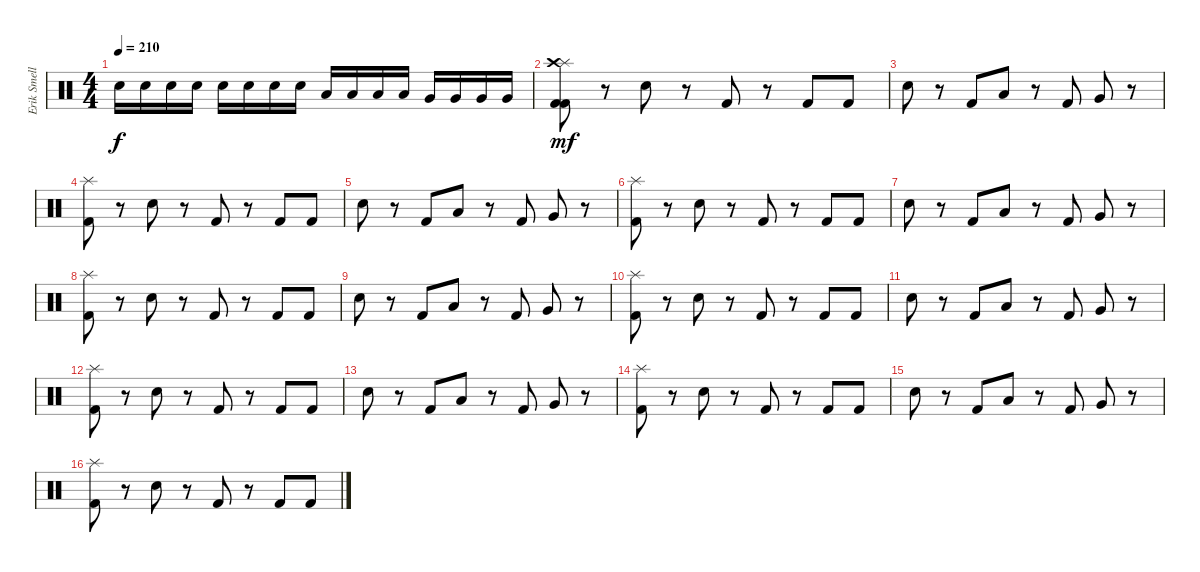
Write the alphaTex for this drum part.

\track ("Erik Smelly" "Erik Smell") {instrument percussion}
\staff {score}
\articulation defaults
\ts (4 4)
\tempo 210
\clef neutral
\ks c "Electric Snare (hit)".16{dy f} "Electric Snare (hit)".16 "Electric Snare (hit)".16 "Electric Snare (hit)".16 "Electric Snare (hit)".16 "Electric Snare (hit)".16 "Electric Snare (hit)".16 "Electric Snare (hit)".16 "Low Tom (hit)".16 "Low Tom (hit)".16 "Low Tom (hit)".16 "Low Tom (hit)".16 "Very Low Tom (hit)".16 "Very Low Tom (hit)".16 "Very Low Tom (hit)".16 "Very Low Tom (hit)".16
|
("Splash (hit)" "Kick (hit) 2" "Crash high (hit)" "Kick (hit) 2").8{dy mf} r.8 "Electric Snare (hit)".8 r.8 "Kick (hit) 2".8 r.8 "Kick (hit) 2".8 "Kick (hit) 2".8 |
"Electric Snare (hit)".8 r.8 "Kick (hit) 2".8 "Low Tom (hit)".8 r.8 "Kick (hit) 2".8 "Very Low Tom (hit)".8 r.8 |
("Splash (hit)" "Kick (hit) 2").8 r.8 "Electric Snare (hit)".8 r.8 "Kick (hit) 2".8 r.8 "Kick (hit) 2".8 "Kick (hit) 2".8 |
"Electric Snare (hit)".8 r.8 "Kick (hit) 2".8 "Low Tom (hit)".8 r.8 "Kick (hit) 2".8 "Very Low Tom (hit)".8 r.8 |
("Splash (hit)" "Kick (hit) 2").8 r.8 "Electric Snare (hit)".8 r.8 "Kick (hit) 2".8 r.8 "Kick (hit) 2".8 "Kick (hit) 2".8 |
"Electric Snare (hit)".8 r.8 "Kick (hit) 2".8 "Low Tom (hit)".8 r.8 "Kick (hit) 2".8 "Very Low Tom (hit)".8 r.8 |
("Splash (hit)" "Kick (hit) 2").8 r.8 "Electric Snare (hit)".8 r.8 "Kick (hit) 2".8 r.8 "Kick (hit) 2".8 "Kick (hit) 2".8 |
"Electric Snare (hit)".8 r.8 "Kick (hit) 2".8 "Low Tom (hit)".8 r.8 "Kick (hit) 2".8 "Very Low Tom (hit)".8 r.8 |
("Splash (hit)" "Kick (hit) 2").8 r.8 "Electric Snare (hit)".8 r.8 "Kick (hit) 2".8 r.8 "Kick (hit) 2".8 "Kick (hit) 2".8 |
"Electric Snare (hit)".8 r.8 "Kick (hit) 2".8 "Low Tom (hit)".8 r.8 "Kick (hit) 2".8 "Very Low Tom (hit)".8 r.8 |
("Splash (hit)" "Kick (hit) 2").8 r.8 "Electric Snare (hit)".8 r.8 "Kick (hit) 2".8 r.8 "Kick (hit) 2".8 "Kick (hit) 2".8 |
"Electric Snare (hit)".8 r.8 "Kick (hit) 2".8 "Low Tom (hit)".8 r.8 "Kick (hit) 2".8 "Very Low Tom (hit)".8 r.8 |
("Splash (hit)" "Kick (hit) 2").8 r.8 "Electric Snare (hit)".8 r.8 "Kick (hit) 2".8 r.8 "Kick (hit) 2".8 "Kick (hit) 2".8 |
"Electric Snare (hit)".8 r.8 "Kick (hit) 2".8 "Low Tom (hit)".8 r.8 "Kick (hit) 2".8 "Very Low Tom (hit)".8 r.8 |
("Splash (hit)" "Kick (hit) 2").8 r.8 "Electric Snare (hit)".8 r.8 "Kick (hit) 2".8 r.8 "Kick (hit) 2".8 "Kick (hit) 2".8
